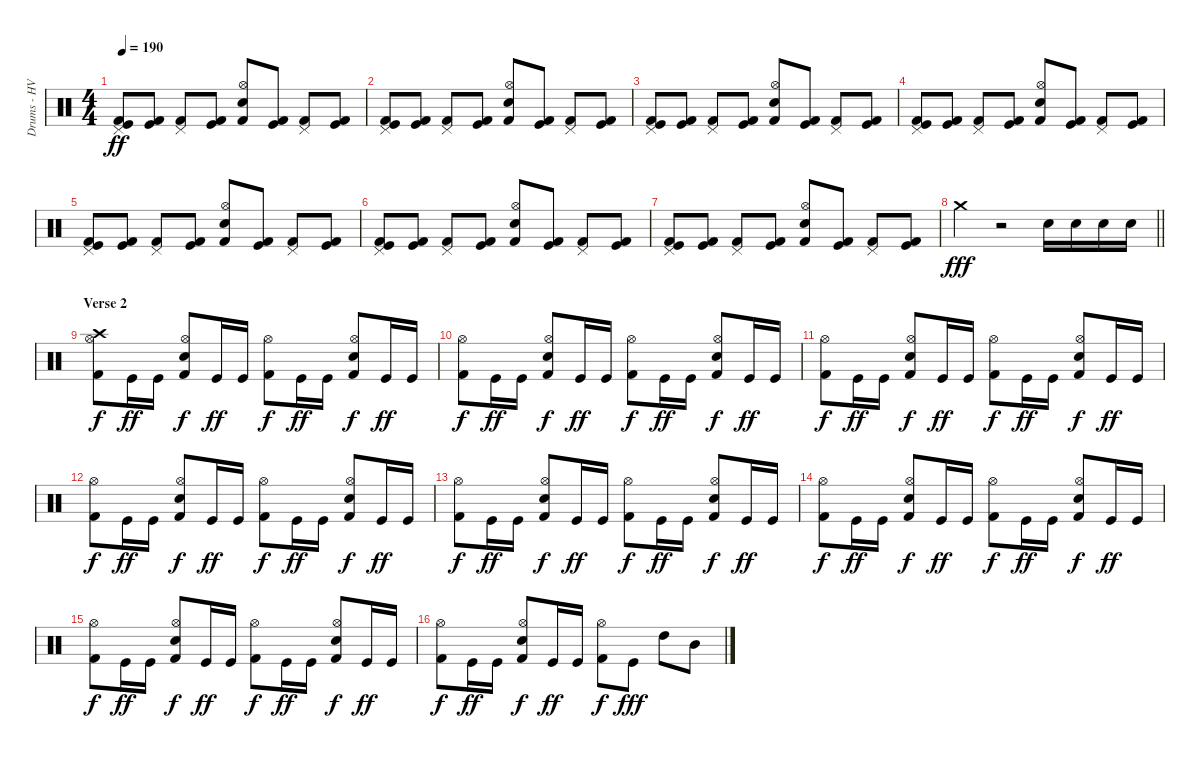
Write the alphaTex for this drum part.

\track ("Drums - HV NikiTon" "Drums - HV") {instrument percussion}
\staff {score}
\articulation defaults
\ts (4 4)
\tempo 190
\clef neutral
\ks c
("Pedal Hi-Hat (hit)" "Kick (hit)" "Kick (hit) 2").8{dy ff} ("Kick (hit)" "Kick (hit) 2").8 ("Pedal Hi-Hat (hit)" "Kick (hit) 2").8 ("Kick (hit)" "Kick (hit) 2").8 ("Hi-Hat (open)" "Electric Snare (hit)" "Kick (hit) 2").8 ("Kick (hit)" "Kick (hit) 2").8 ("Pedal Hi-Hat (hit)" "Kick (hit) 2").8 ("Kick (hit)" "Kick (hit) 2").8 |
("Pedal Hi-Hat (hit)" "Kick (hit)" "Kick (hit) 2").8 ("Kick (hit)" "Kick (hit) 2").8 ("Pedal Hi-Hat (hit)" "Kick (hit) 2").8 ("Kick (hit)" "Kick (hit) 2").8 ("Hi-Hat (open)" "Electric Snare (hit)" "Kick (hit) 2").8 ("Kick (hit)" "Kick (hit) 2").8 ("Pedal Hi-Hat (hit)" "Kick (hit) 2").8 ("Kick (hit)" "Kick (hit) 2").8 |
("Pedal Hi-Hat (hit)" "Kick (hit)" "Kick (hit) 2").8 ("Kick (hit)" "Kick (hit) 2").8 ("Pedal Hi-Hat (hit)" "Kick (hit) 2").8 ("Kick (hit)" "Kick (hit) 2").8 ("Hi-Hat (open)" "Electric Snare (hit)" "Kick (hit) 2").8 ("Kick (hit)" "Kick (hit) 2").8 ("Pedal Hi-Hat (hit)" "Kick (hit) 2").8 ("Kick (hit)" "Kick (hit) 2").8 |
("Pedal Hi-Hat (hit)" "Kick (hit)" "Kick (hit) 2").8 ("Kick (hit)" "Kick (hit) 2").8 ("Pedal Hi-Hat (hit)" "Kick (hit) 2").8 ("Kick (hit)" "Kick (hit) 2").8 ("Hi-Hat (open)" "Electric Snare (hit)" "Kick (hit) 2").8 ("Kick (hit)" "Kick (hit) 2").8 ("Pedal Hi-Hat (hit)" "Kick (hit) 2").8 ("Kick (hit)" "Kick (hit) 2").8 |
("Pedal Hi-Hat (hit)" "Kick (hit)" "Kick (hit) 2").8 ("Kick (hit)" "Kick (hit) 2").8 ("Pedal Hi-Hat (hit)" "Kick (hit) 2").8 ("Kick (hit)" "Kick (hit) 2").8 ("Hi-Hat (open)" "Electric Snare (hit)" "Kick (hit) 2").8 ("Kick (hit)" "Kick (hit) 2").8 ("Pedal Hi-Hat (hit)" "Kick (hit) 2").8 ("Kick (hit)" "Kick (hit) 2").8 |
("Pedal Hi-Hat (hit)" "Kick (hit)" "Kick (hit) 2").8 ("Kick (hit)" "Kick (hit) 2").8 ("Pedal Hi-Hat (hit)" "Kick (hit) 2").8 ("Kick (hit)" "Kick (hit) 2").8 ("Hi-Hat (open)" "Electric Snare (hit)" "Kick (hit) 2").8 ("Kick (hit)" "Kick (hit) 2").8 ("Pedal Hi-Hat (hit)" "Kick (hit) 2").8 ("Kick (hit)" "Kick (hit) 2").8 |
("Pedal Hi-Hat (hit)" "Kick (hit)" "Kick (hit) 2").8 ("Kick (hit)" "Kick (hit) 2").8 ("Pedal Hi-Hat (hit)" "Kick (hit) 2").8 ("Kick (hit)" "Kick (hit) 2").8 ("Hi-Hat (open)" "Electric Snare (hit)" "Kick (hit) 2").8 ("Kick (hit)" "Kick (hit) 2").8 ("Pedal Hi-Hat (hit)" "Kick (hit) 2").8 ("Kick (hit)" "Kick (hit) 2").8 |
\barLineRight lightlight "Crash medium (hit)".4{dy fff}
r.2 "Electric Snare (hit)".16 "Electric Snare (hit)".16 "Electric Snare (hit)".16 "Electric Snare (hit)".16 |
\section ("" "Verse 2")
("Kick (hit) 2" "Hi-Hat (open)" "Crash high (hit)").8{dy f} "Kick (hit)".16{dy ff} "Kick (hit)".16 ("Electric Snare (hit)" "Kick (hit) 2" "Hi-Hat (open)").8{dy f} "Kick (hit)".16{dy ff} "Kick (hit)".16 ("Kick (hit) 2" "Hi-Hat (open)").8{dy f} "Kick (hit)".16{dy ff} "Kick (hit)".16 ("Electric Snare (hit)" "Kick (hit) 2" "Hi-Hat (open)").8{dy f} "Kick (hit)".16{dy ff} "Kick (hit)".16 |
("Kick (hit) 2" "Hi-Hat (open)").8{dy f} "Kick (hit)".16{dy ff} "Kick (hit)".16 ("Electric Snare (hit)" "Kick (hit) 2" "Hi-Hat (open)").8{dy f} "Kick (hit)".16{dy ff} "Kick (hit)".16 ("Kick (hit) 2" "Hi-Hat (open)").8{dy f} "Kick (hit)".16{dy ff} "Kick (hit)".16 ("Electric Snare (hit)" "Kick (hit) 2" "Hi-Hat (open)").8{dy f} "Kick (hit)".16{dy ff} "Kick (hit)".16 |
("Kick (hit) 2" "Hi-Hat (open)").8{dy f} "Kick (hit)".16{dy ff} "Kick (hit)".16 ("Electric Snare (hit)" "Kick (hit) 2" "Hi-Hat (open)").8{dy f} "Kick (hit)".16{dy ff} "Kick (hit)".16 ("Kick (hit) 2" "Hi-Hat (open)").8{dy f} "Kick (hit)".16{dy ff} "Kick (hit)".16 ("Electric Snare (hit)" "Kick (hit) 2" "Hi-Hat (open)").8{dy f} "Kick (hit)".16{dy ff} "Kick (hit)".16 |
("Kick (hit) 2" "Hi-Hat (open)").8{dy f} "Kick (hit)".16{dy ff} "Kick (hit)".16 ("Electric Snare (hit)" "Kick (hit) 2" "Hi-Hat (open)").8{dy f} "Kick (hit)".16{dy ff} "Kick (hit)".16 ("Kick (hit) 2" "Hi-Hat (open)").8{dy f} "Kick (hit)".16{dy ff} "Kick (hit)".16 ("Electric Snare (hit)" "Kick (hit) 2" "Hi-Hat (open)").8{dy f} "Kick (hit)".16{dy ff} "Kick (hit)".16 |
("Kick (hit) 2" "Hi-Hat (open)").8{dy f} "Kick (hit)".16{dy ff} "Kick (hit)".16 ("Electric Snare (hit)" "Kick (hit) 2" "Hi-Hat (open)").8{dy f} "Kick (hit)".16{dy ff} "Kick (hit)".16 ("Kick (hit) 2" "Hi-Hat (open)").8{dy f} "Kick (hit)".16{dy ff} "Kick (hit)".16 ("Electric Snare (hit)" "Kick (hit) 2" "Hi-Hat (open)").8{dy f} "Kick (hit)".16{dy ff} "Kick (hit)".16 |
("Kick (hit) 2" "Hi-Hat (open)").8{dy f} "Kick (hit)".16{dy ff} "Kick (hit)".16 ("Electric Snare (hit)" "Kick (hit) 2" "Hi-Hat (open)").8{dy f} "Kick (hit)".16{dy ff} "Kick (hit)".16 ("Kick (hit) 2" "Hi-Hat (open)").8{dy f} "Kick (hit)".16{dy ff} "Kick (hit)".16 ("Electric Snare (hit)" "Kick (hit) 2" "Hi-Hat (open)").8{dy f} "Kick (hit)".16{dy ff} "Kick (hit)".16 |
("Kick (hit) 2" "Hi-Hat (open)").8{dy f} "Kick (hit)".16{dy ff} "Kick (hit)".16 ("Electric Snare (hit)" "Kick (hit) 2" "Hi-Hat (open)").8{dy f} "Kick (hit)".16{dy ff} "Kick (hit)".16 ("Kick (hit) 2" "Hi-Hat (open)").8{dy f} "Kick (hit)".16{dy ff} "Kick (hit)".16 ("Electric Snare (hit)" "Kick (hit) 2" "Hi-Hat (open)").8{dy f} "Kick (hit)".16{dy ff} "Kick (hit)".16 |
("Kick (hit) 2" "Hi-Hat (open)").8{dy f} "Kick (hit)".16{dy ff} "Kick (hit)".16 ("Electric Snare (hit)" "Kick (hit) 2" "Hi-Hat (open)").8{dy f} "Kick (hit)".16{dy ff} "Kick (hit)".16 ("Kick (hit) 2" "Hi-Hat (open)").8{dy f} "Kick (hit)".8{dy fff} "High Tom (hit)".8 "Mid Tom (hit)".8
